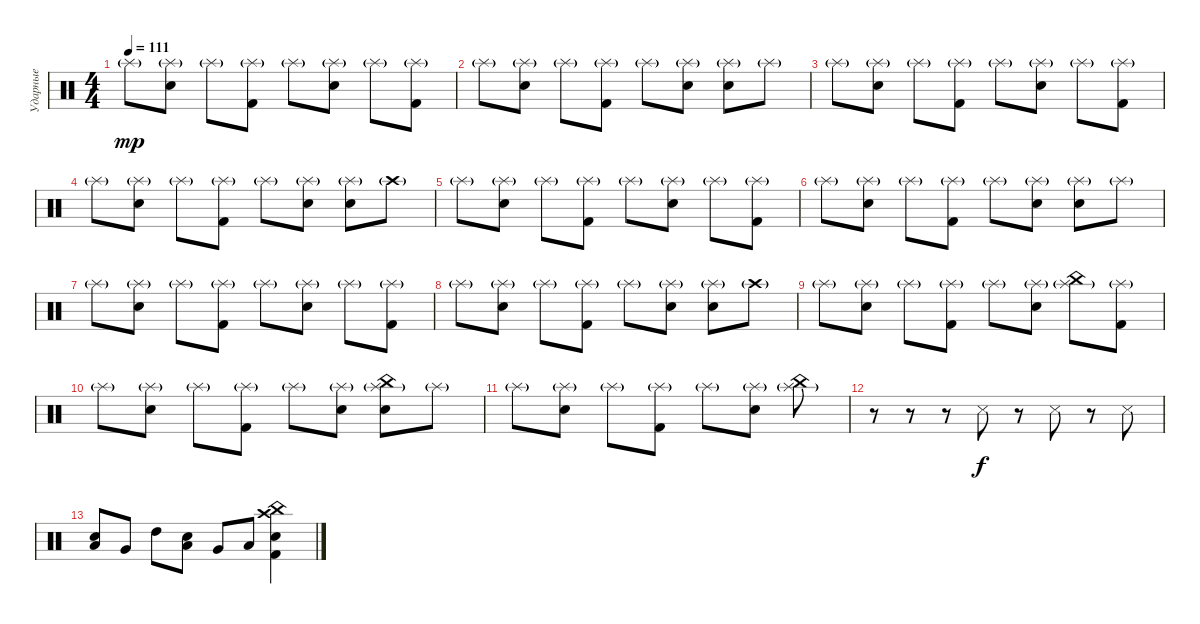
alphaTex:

\track ("Ударные" "Ударные") {instrument percussion}
\staff {score}
\articulation defaults
\ts (4 4)
\tempo 111
\clef neutral
\ks c "Splash (hit)"{g}.8{dy mp}
("Electric Snare (hit)" "Splash (hit)"{g}).8 "Splash (hit)"{g}.8 ("Splash (hit)"{g} "Kick (hit) 2").8 "Splash (hit)"{g}.8 ("Electric Snare (hit)" "Splash (hit)"{g}).8 "Splash (hit)"{g}.8 ("Splash (hit)"{g} "Kick (hit) 2").8 |
"Splash (hit)"{g}.8 ("Electric Snare (hit)" "Splash (hit)"{g}).8 "Splash (hit)"{g}.8 ("Splash (hit)"{g} "Kick (hit) 2").8 "Splash (hit)"{g}.8 ("Electric Snare (hit)" "Splash (hit)"{g}).8 ("Snare (hit) 2" "Splash (hit)"{g}).8 "Splash (hit)"{g}.8 |
"Splash (hit)"{g}.8 ("Electric Snare (hit)" "Splash (hit)"{g}).8 "Splash (hit)"{g}.8 ("Splash (hit)"{g} "Kick (hit) 2").8 "Splash (hit)"{g}.8 ("Electric Snare (hit)" "Splash (hit)"{g}).8 "Splash (hit)"{g}.8 ("Splash (hit)"{g} "Kick (hit) 2").8 |
"Splash (hit)"{g}.8 ("Electric Snare (hit)" "Splash (hit)"{g}).8 "Splash (hit)"{g}.8 ("Splash (hit)"{g} "Kick (hit) 2").8 "Splash (hit)"{g}.8 ("Electric Snare (hit)" "Splash (hit)"{g}).8 ("Snare (hit) 2" "Splash (hit)"{g}).8 "Crash high (hit)"{g}.8 |
"Splash (hit)"{g}.8 ("Electric Snare (hit)" "Splash (hit)"{g}).8 "Splash (hit)"{g}.8 ("Splash (hit)"{g} "Kick (hit) 2").8 "Splash (hit)"{g}.8 ("Electric Snare (hit)" "Splash (hit)"{g}).8 "Splash (hit)"{g}.8 ("Splash (hit)"{g} "Kick (hit) 2").8 |
"Splash (hit)"{g}.8 ("Electric Snare (hit)" "Splash (hit)"{g}).8 "Splash (hit)"{g}.8 ("Splash (hit)"{g} "Kick (hit) 2").8 "Splash (hit)"{g}.8 ("Electric Snare (hit)" "Splash (hit)"{g}).8 ("Snare (hit) 2" "Splash (hit)"{g}).8 "Splash (hit)"{g}.8 |
"Splash (hit)"{g}.8 ("Electric Snare (hit)" "Splash (hit)"{g}).8 "Splash (hit)"{g}.8 ("Splash (hit)"{g} "Kick (hit) 2").8 "Splash (hit)"{g}.8 ("Electric Snare (hit)" "Splash (hit)"{g}).8 "Splash (hit)"{g}.8 ("Splash (hit)"{g} "Kick (hit) 2").8 |
"Splash (hit)"{g}.8 ("Electric Snare (hit)" "Splash (hit)"{g}).8 "Splash (hit)"{g}.8 ("Splash (hit)"{g} "Kick (hit) 2").8 "Splash (hit)"{g}.8 ("Electric Snare (hit)" "Splash (hit)"{g}).8 ("Snare (hit) 2" "Splash (hit)"{g}).8 "Crash high (hit)"{g}.8 |
"Splash (hit)"{g}.8 ("Electric Snare (hit)" "Splash (hit)"{g}).8 "Splash (hit)"{g}.8 ("Splash (hit)"{g} "Kick (hit) 2").8 "Splash (hit)"{g}.8 ("Electric Snare (hit)" "Splash (hit)"{g}).8 ("Splash (hit)"{g} "China (hit)").8 ("Splash (hit)"{g} "Kick (hit) 2").8 |
"Splash (hit)"{g}.8 ("Electric Snare (hit)" "Splash (hit)"{g}).8 "Splash (hit)"{g}.8 ("Splash (hit)"{g} "Kick (hit) 2").8 "Splash (hit)"{g}.8 ("Electric Snare (hit)" "Splash (hit)"{g}).8 ("Snare (hit) 2" "Splash (hit)"{g} "China (hit)").8 "Splash (hit)"{g}.8 |
"Splash (hit)"{g}.8 ("Electric Snare (hit)" "Splash (hit)"{g}).8 "Splash (hit)"{g}.8 ("Splash (hit)"{g} "Kick (hit) 2").8 "Splash (hit)"{g}.8 ("Electric Snare (hit)" "Splash (hit)"{g}).8 ("Splash (hit)"{g} "China (hit)").8 |
r.8 r.8 r.8 "Snare (side stick) 3".8{dy f} r.8 "Snare (side stick) 3".8 r.8 "Snare (side stick) 3".8 |
("Low Floor Tom (hit)" "Electric Snare (hit)").8 "Very Low Tom (hit)".8 "High Tom (hit)".8 ("Low Floor Tom (hit)" "Electric Snare (hit)").8 "Very Low Tom (hit)".8 "Low Floor Tom (hit)".8 ("Kick (hit) 2" "China (hit)" "Crash high (hit)" "Electric Snare (hit)").4
